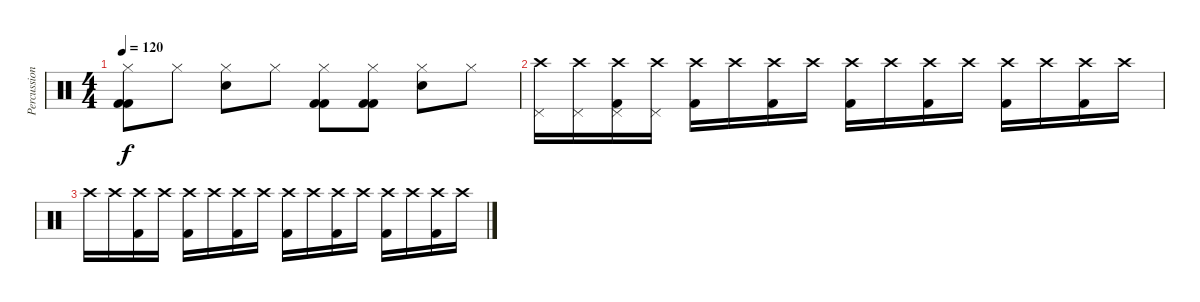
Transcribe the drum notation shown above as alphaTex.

\track ("Percussion" "Percussion") {instrument percussion}
\staff {score}
\articulation defaults
\ts (4 4)
\tempo 120
\clef neutral
\ks c
("Kick (hit) 2" "Hi-Hat (closed)" "Kick (hit) 2").8{dy f} "Hi-Hat (closed)".8 ("Snare (hit) 2" "Hi-Hat (closed)").8 "Hi-Hat (closed)".8 ("Kick (hit) 2" "Hi-Hat (closed)" "Kick (hit) 2").8 ("Kick (hit) 2" "Hi-Hat (closed)" "Kick (hit) 2").8 ("Snare (hit) 2" "Hi-Hat (closed)").8 "Hi-Hat (closed)".8 |
("Crash high (hit)" "Pedal Hi-Hat (hit)").16 ("Crash high (hit)" "Pedal Hi-Hat (hit)").16 ("Crash high (hit)" "Kick (hit) 2" "Pedal Hi-Hat (hit)").16 ("Crash high (hit)" "Pedal Hi-Hat (hit)").16 ("Crash high (hit)" "Kick (hit) 2").16 "Crash high (hit)".16 ("Crash high (hit)" "Kick (hit) 2").16 "Crash high (hit)".16 ("Crash high (hit)" "Kick (hit) 2").16 "Crash high (hit)".16 ("Crash high (hit)" "Kick (hit) 2").16 "Crash high (hit)".16 ("Crash high (hit)" "Kick (hit) 2").16 "Crash high (hit)".16 ("Crash high (hit)" "Kick (hit) 2").16 "Crash high (hit)".16 |
"Crash high (hit)".16 "Crash high (hit)".16 ("Crash high (hit)" "Kick (hit) 2").16 "Crash high (hit)".16 ("Crash high (hit)" "Kick (hit) 2").16 "Crash high (hit)".16 ("Crash high (hit)" "Kick (hit) 2").16 "Crash high (hit)".16 ("Crash high (hit)" "Kick (hit) 2").16 "Crash high (hit)".16 ("Crash high (hit)" "Kick (hit) 2").16 "Crash high (hit)".16 ("Crash high (hit)" "Kick (hit) 2").16 "Crash high (hit)".16 ("Crash high (hit)" "Kick (hit) 2").16 "Crash high (hit)".16
